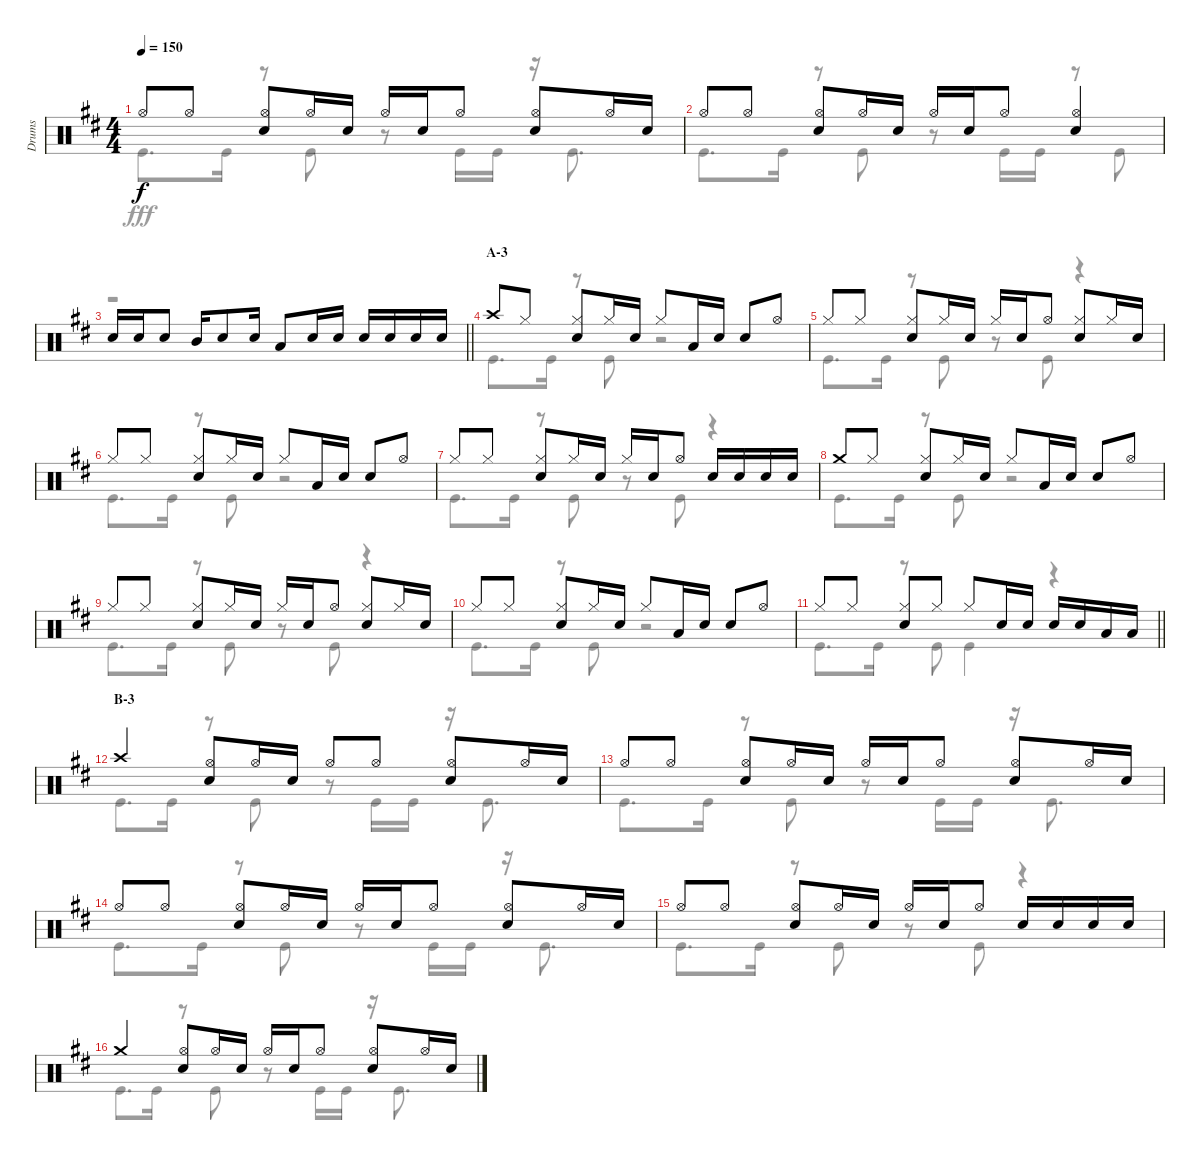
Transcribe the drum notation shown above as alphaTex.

\track ("Drums" "Drums") {instrument percussion}
\staff {score}
\articulation defaults
\voice
\ts (4 4)
\tempo 150
\clef neutral
\ks d "Hi-Hat (open)".8{dy f} "Hi-Hat (open)".8
("Hi-Hat (open)" "Snare (hit) 2").8 "Hi-Hat (open)".16 "Snare (hit) 2".16 "Hi-Hat (open)".16 "Snare (hit) 2".16 "Hi-Hat (open)".8 ("Hi-Hat (open)" "Snare (hit) 2").8 "Hi-Hat (open)".16 "Snare (hit) 2".16 |
"Hi-Hat (open)".8 "Hi-Hat (open)".8 ("Hi-Hat (open)" "Snare (hit) 2").8 "Hi-Hat (open)".16 "Snare (hit) 2".16 "Hi-Hat (open)".16 "Snare (hit) 2".16 "Hi-Hat (open)".8 ("Hi-Hat (open)" "Snare (hit) 2").4 |
\barLineRight lightlight "Snare (hit) 2".16 "Snare (hit) 2".16 "Snare (hit) 2".8 "Mid Tom (hit)".16 "Snare (hit) 2".8 "Snare (hit) 2".16 "Low Tom (hit)".8 "Snare (hit) 2".16 "Snare (hit) 2".16 "Snare (hit) 2".16 "Snare (hit) 2".16 "Snare (hit) 2".16 "Snare (hit) 2".16
|
\section ("" "A-3")
"Crash high (hit)".8 "Hi-Hat (closed)".8 ("Hi-Hat (closed)" "Snare (hit) 2").8 "Hi-Hat (closed)".16 "Snare (hit) 2".16 "Hi-Hat (closed)".8 "Low Tom (hit)".16 "Snare (hit) 2".16 "Snare (hit) 2".8 "Hi-Hat (open)".8 |
"Hi-Hat (closed)".8 "Hi-Hat (closed)".8 ("Hi-Hat (closed)" "Snare (hit) 2").8 "Hi-Hat (closed)".16 "Snare (hit) 2".16 "Hi-Hat (closed)".16 "Snare (hit) 2".16 "Hi-Hat (open)".8 ("Hi-Hat (closed)" "Snare (hit) 2").8 "Hi-Hat (closed)".16 "Snare (hit) 2".16 |
"Hi-Hat (closed)".8 "Hi-Hat (closed)".8 ("Hi-Hat (closed)" "Snare (hit) 2").8 "Hi-Hat (closed)".16 "Snare (hit) 2".16 "Hi-Hat (closed)".8 "Low Tom (hit)".16 "Snare (hit) 2".16 "Snare (hit) 2".8 "Hi-Hat (open)".8 |
"Hi-Hat (closed)".8 "Hi-Hat (closed)".8 ("Hi-Hat (closed)" "Snare (hit) 2").8 "Hi-Hat (closed)".16 "Snare (hit) 2".16 "Hi-Hat (closed)".16 "Snare (hit) 2".16 "Hi-Hat (open)".8 "Snare (hit) 2".16 "Snare (hit) 2".16 "Snare (hit) 2".16 "Snare (hit) 2".16 |
"Crash medium (hit)".8 "Hi-Hat (closed)".8 ("Hi-Hat (closed)" "Snare (hit) 2").8 "Hi-Hat (closed)".16 "Snare (hit) 2".16 "Hi-Hat (closed)".8 "Low Tom (hit)".16 "Snare (hit) 2".16 "Snare (hit) 2".8 "Hi-Hat (open)".8 |
"Hi-Hat (closed)".8 "Hi-Hat (closed)".8 ("Hi-Hat (closed)" "Snare (hit) 2").8 "Hi-Hat (closed)".16 "Snare (hit) 2".16 "Hi-Hat (closed)".16 "Snare (hit) 2".16 "Hi-Hat (open)".8 ("Hi-Hat (closed)" "Snare (hit) 2").8 "Hi-Hat (closed)".16 "Snare (hit) 2".16 |
"Hi-Hat (closed)".8 "Hi-Hat (closed)".8 ("Hi-Hat (closed)" "Snare (hit) 2").8 "Hi-Hat (closed)".16 "Snare (hit) 2".16 "Hi-Hat (closed)".8 "Low Tom (hit)".16 "Snare (hit) 2".16 "Snare (hit) 2".8 "Hi-Hat (open)".8 |
\barLineRight lightlight "Hi-Hat (closed)".8 "Hi-Hat (closed)".8
("Hi-Hat (closed)" "Snare (hit) 2").8 "Hi-Hat (closed)".8 "Hi-Hat (closed)".8 "Snare (hit) 2".16 "Snare (hit) 2".16 "Snare (hit) 2".16 "Snare (hit) 2".16 "Low Tom (hit)".16 "Low Tom (hit)".16 |
\section ("" "B-3")
"Crash high (hit)".4 ("Hi-Hat (open)" "Snare (hit) 2").8 "Hi-Hat (open)".16 "Snare (hit) 2".16 "Hi-Hat (open)".8 "Hi-Hat (open)".8 ("Hi-Hat (open)" "Snare (hit) 2").8 "Hi-Hat (open)".16 "Snare (hit) 2".16 |
"Hi-Hat (open)".8 "Hi-Hat (open)".8 ("Hi-Hat (open)" "Snare (hit) 2").8 "Hi-Hat (open)".16 "Snare (hit) 2".16 "Hi-Hat (open)".16 "Snare (hit) 2".16 "Hi-Hat (open)".8 ("Hi-Hat (open)" "Snare (hit) 2").8 "Hi-Hat (open)".16 "Snare (hit) 2".16 |
"Hi-Hat (open)".8 "Hi-Hat (open)".8 ("Hi-Hat (open)" "Snare (hit) 2").8 "Hi-Hat (open)".16 "Snare (hit) 2".16 "Hi-Hat (open)".16 "Snare (hit) 2".16 "Hi-Hat (open)".8 ("Hi-Hat (open)" "Snare (hit) 2").8 "Hi-Hat (open)".16 "Snare (hit) 2".16 |
"Hi-Hat (open)".8 "Hi-Hat (open)".8 ("Hi-Hat (open)" "Snare (hit) 2").8 "Hi-Hat (open)".16 "Snare (hit) 2".16 "Hi-Hat (open)".16 "Snare (hit) 2".16 "Hi-Hat (open)".8 "Snare (hit) 2".16 "Snare (hit) 2".16 "Snare (hit) 2".16 "Snare (hit) 2".16 |
"Crash medium (hit)".4 ("Hi-Hat (open)" "Snare (hit) 2").8 "Hi-Hat (open)".16 "Snare (hit) 2".16 "Hi-Hat (open)".16 "Snare (hit) 2".16 "Hi-Hat (open)".8 ("Hi-Hat (open)" "Snare (hit) 2").8 "Hi-Hat (open)".16 "Snare (hit) 2".16
\voice
\clef neutral
\ottava regular
\simile none
\ks d "Kick (hit)".8{d dy fff} "Kick (hit)".16
r.8 "Kick (hit)".8 r.8 "Kick (hit)".16 "Kick (hit)".16 r.16 "Kick (hit)".8{d} |
"Kick (hit)".8{d} "Kick (hit)".16 r.8 "Kick (hit)".8 r.8 "Kick (hit)".16 "Kick (hit)".16 r.8 "Kick (hit)".8 |
\barLineRight lightlight
r.1 |
"Kick (hit)".8{d} "Kick (hit)".16 r.8 "Kick (hit)".8 r.2 |
"Kick (hit)".8{d} "Kick (hit)".16 r.8 "Kick (hit)".8 r.8 "Kick (hit)".8 r.4 |
"Kick (hit)".8{d} "Kick (hit)".16 r.8 "Kick (hit)".8 r.2 |
"Kick (hit)".8{d} "Kick (hit)".16 r.8 "Kick (hit)".8 r.8 "Kick (hit)".8 r.4 |
"Kick (hit)".8{d} "Kick (hit)".16 r.8 "Kick (hit)".8 r.2 |
"Kick (hit)".8{d} "Kick (hit)".16 r.8 "Kick (hit)".8 r.8 "Kick (hit)".8 r.4 |
"Kick (hit)".8{d} "Kick (hit)".16 r.8 "Kick (hit)".8 r.2 |
\barLineRight lightlight "Kick (hit)".8{d} "Kick (hit)".16
r.8 "Kick (hit)".8 "Kick (hit)".4 r.4 |
"Kick (hit)".8{d} "Kick (hit)".16 r.8 "Kick (hit)".8 r.8 "Kick (hit)".16 "Kick (hit)".16 r.16 "Kick (hit)".8{d} |
"Kick (hit)".8{d} "Kick (hit)".16 r.8 "Kick (hit)".8 r.8 "Kick (hit)".16 "Kick (hit)".16 r.16 "Kick (hit)".8{d} |
"Kick (hit)".8{d} "Kick (hit)".16 r.8 "Kick (hit)".8 r.8 "Kick (hit)".16 "Kick (hit)".16 r.16 "Kick (hit)".8{d} |
"Kick (hit)".8{d} "Kick (hit)".16 r.8 "Kick (hit)".8 r.8 "Kick (hit)".8 r.4 |
"Kick (hit)".8{d} "Kick (hit)".16 r.8 "Kick (hit)".8 r.8 "Kick (hit)".16 "Kick (hit)".16 r.16 "Kick (hit)".8{d}
